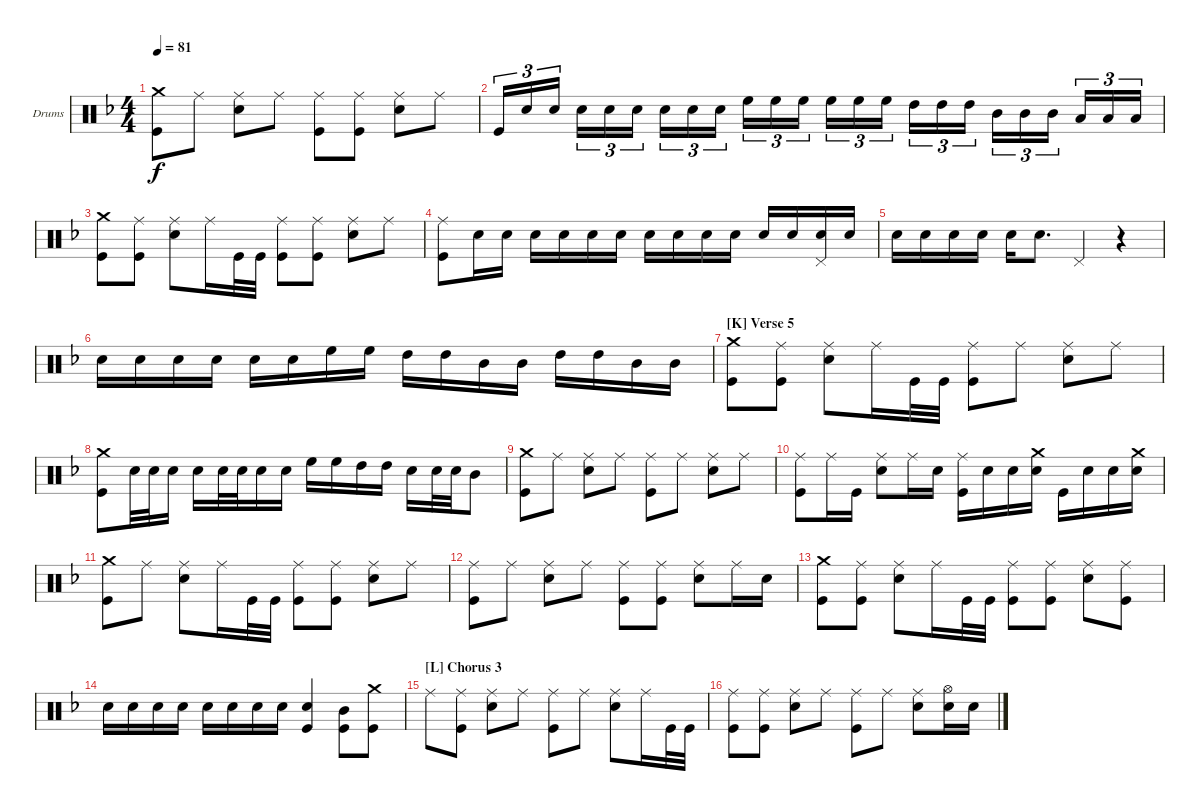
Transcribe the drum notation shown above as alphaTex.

\bracketExtendMode groupsimilarinstruments
\firstSystemTrackNameOrientation horizontal
\otherSystemsTrackNameOrientation horizontal
\track ("Vinny Appice" "Drums") {instrument percussion}
\staff {score}
\articulation defaults
\ts (4 4)
\tempo 81
\clef neutral
\ks dminor
("Crash medium (hit)" "Kick (hit)").8{dy f} "Ride (middle)".8 ("Ride (middle)" "Snare (hit) 2").8 "Ride (middle)".8 ("Ride (middle)" "Kick (hit)").8 ("Ride (middle)" "Kick (hit)").8 ("Ride (middle)" "Snare (hit) 2").8 "Ride (middle)".8 |
"Kick (hit)".16{tu (3 2)} "Snare (hit) 2".16{tu (3 2)} "Snare (hit) 2".16{tu (3 2)} "Snare (hit) 2".16{tu (3 2)} "Snare (hit) 2".16{tu (3 2)} "Snare (hit) 2".16{tu (3 2)} "Snare (hit) 2".16{tu (3 2)} "Snare (hit) 2".16{tu (3 2)} "Snare (hit) 2".16{tu (3 2)} "High Floor Tom (hit)".16{tu (3 2)} "High Floor Tom (hit)".16{tu (3 2)} "High Floor Tom (hit)".16{tu (3 2)} "High Floor Tom (hit)".16{tu (3 2)} "High Floor Tom (hit)".16{tu (3 2)} "High Floor Tom (hit)".16{tu (3 2)} "High Tom (hit)".16{tu (3 2)} "High Tom (hit)".16{tu (3 2)} "High Tom (hit)".16{tu (3 2)} "Mid Tom (hit)".16{tu (3 2)} "Mid Tom (hit)".16{tu (3 2)} "Mid Tom (hit)".16{tu (3 2)} "Low Tom (hit)".16{tu (3 2)} "Low Tom (hit)".16{tu (3 2)} "Low Tom (hit)".16{tu (3 2)} |
("Crash medium (hit)" "Kick (hit)").8 ("Ride (middle)" "Kick (hit)").8 ("Ride (middle)" "Snare (hit) 2").8 "Ride (middle)".16 "Kick (hit)".32 "Kick (hit)".32 ("Ride (middle)" "Kick (hit)").8 ("Ride (middle)" "Kick (hit)").8 ("Ride (middle)" "Snare (hit) 2").8 "Ride (middle)".8 |
("Ride (middle)" "Kick (hit)").8 "Snare (hit) 2".16 "Snare (hit) 2".16 "Snare (hit) 2".16 "Snare (hit) 2".16 "Snare (hit) 2".16 "Snare (hit) 2".16 "Snare (hit) 2".16 "Snare (hit) 2".16 "Snare (hit) 2".16 "Snare (hit) 2".16 "Snare (hit) 2".16 "Snare (hit) 2".16 ("Pedal Hi-Hat (hit)" "Snare (hit) 2").16 "Snare (hit) 2".16 |
"Snare (hit) 2".16 "Snare (hit) 2".16 "Snare (hit) 2".16 "Snare (hit) 2".16 "Snare (hit) 2".16 "Snare (hit) 2".8{d} "Pedal Hi-Hat (hit)".4 r.4 |
"Snare (hit) 2".16 "Snare (hit) 2".16 "Snare (hit) 2".16 "Snare (hit) 2".16 "Snare (hit) 2".16 "Snare (hit) 2".16 "High Floor Tom (hit)".16 "High Floor Tom (hit)".16 "High Tom (hit)".16 "High Tom (hit)".16 "Mid Tom (hit)".16 "Mid Tom (hit)".16 "High Tom (hit)".16 "High Tom (hit)".16 "Mid Tom (hit)".16 "Mid Tom (hit)".16 |
\section ("K" "Verse 5")
("Crash medium (hit)" "Kick (hit)").8 ("Ride (middle)" "Kick (hit)").8 ("Ride (middle)" "Snare (hit) 2").8 "Ride (middle)".16 "Kick (hit)".32 "Kick (hit)".32 ("Ride (middle)" "Kick (hit)").8 "Ride (middle)".8 ("Ride (middle)" "Snare (hit) 2").8 "Ride (middle)".8 |
("Crash medium (hit)" "Kick (hit)").8 "Snare (hit) 2".32 "Snare (hit) 2".32 "Snare (hit) 2".16 "Snare (hit) 2".16 "Snare (hit) 2".32 "Snare (hit) 2".32 "Snare (hit) 2".16 "Snare (hit) 2".16 "High Floor Tom (hit)".16 "High Floor Tom (hit)".16 "High Tom (hit)".16 "High Tom (hit)".16 "Snare (hit) 2".16 "Snare (hit) 2".32 "Snare (hit) 2".32 "Mid Tom (hit)".8 |
("Crash medium (hit)" "Kick (hit)").8 "Ride (middle)".8 ("Ride (middle)" "Snare (hit) 2").8 "Ride (middle)".8 ("Ride (middle)" "Kick (hit)").8 "Ride (middle)".8 ("Ride (middle)" "Snare (hit) 2").8 "Ride (middle)".8 |
("Ride (middle)" "Kick (hit)").8 "Ride (middle)".16 "Kick (hit)".16 ("Snare (hit) 2" "Ride (middle)").8 "Ride (middle)".16 "Snare (hit) 2".16 ("Ride (middle)" "Kick (hit)").16 "Snare (hit) 2".16 "Snare (hit) 2".16 ("Snare (hit) 2" "Crash medium (hit)").16 "Kick (hit)".16 "Snare (hit) 2".16 "Snare (hit) 2".16 ("Snare (hit) 2" "Crash medium (hit)").16 |
("Crash medium (hit)" "Kick (hit)").8 "Ride (middle)".8 ("Ride (middle)" "Snare (hit) 2").8 "Ride (middle)".16 "Kick (hit)".32 "Kick (hit)".32 ("Kick (hit)" "Ride (middle)").8 ("Ride (middle)" "Kick (hit)").8 ("Ride (middle)" "Snare (hit) 2").8 "Ride (middle)".8 |
("Ride (middle)" "Kick (hit)").8 "Ride (middle)".8 ("Ride (middle)" "Snare (hit) 2").8 "Ride (middle)".8 ("Ride (middle)" "Kick (hit)").8 ("Ride (middle)" "Kick (hit)").8 ("Ride (middle)" "Snare (hit) 2").8 "Ride (middle)".16 "Snare (hit) 2".16 |
("Crash medium (hit)" "Kick (hit)").8 ("Ride (middle)" "Kick (hit)").8 ("Ride (middle)" "Snare (hit) 2").8 "Ride (middle)".16 "Kick (hit)".32 "Kick (hit)".32 ("Ride (middle)" "Kick (hit)").8 ("Ride (middle)" "Kick (hit)").8 ("Ride (middle)" "Snare (hit) 2").8 ("Ride (middle)" "Kick (hit)").8 |
"Snare (hit) 2".16 "Snare (hit) 2".16 "Snare (hit) 2".16 "Snare (hit) 2".16 "Snare (hit) 2".16 "Snare (hit) 2".16 "Snare (hit) 2".16 "Snare (hit) 2".16 ("Snare (hit) 2" "Kick (hit)").4 ("Mid Tom (hit)" "Kick (hit)").8 ("Crash medium (hit)" "Kick (hit)").8 |
\section ("L" "Chorus 3")
"Ride (middle)".8 ("Ride (middle)" "Kick (hit)").8 ("Ride (middle)" "Snare (hit) 2").8 "Ride (middle)".8 ("Ride (middle)" "Kick (hit)").8 "Ride (middle)".8 ("Ride (middle)" "Snare (hit) 2").8 "Ride (middle)".16 "Kick (hit)".32 "Kick (hit)".32 |
("Ride (middle)" "Kick (hit)").8 ("Ride (middle)" "Kick (hit)").8 ("Ride (middle)" "Snare (hit) 2").8 "Ride (middle)".8 ("Ride (middle)" "Kick (hit)").8 "Ride (middle)".8 ("Ride (middle)" "Snare (hit) 2").8 ("Snare (hit) 2" "Hi-Hat (open)").16 "Snare (hit) 2".16
